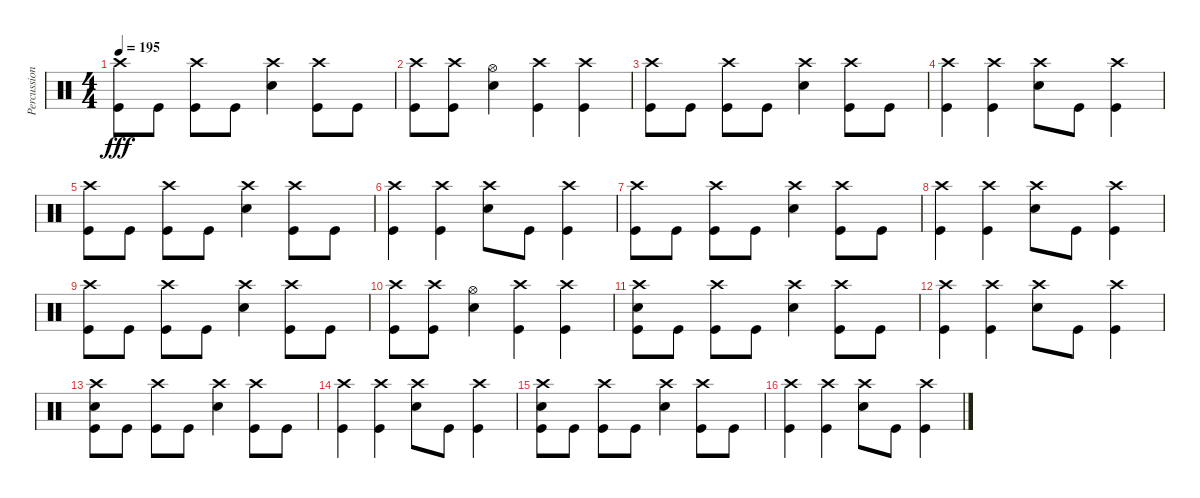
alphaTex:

\track ("Percussions" "Percussion") {instrument percussion}
\staff {score}
\articulation defaults
\ts (4 4)
\tempo 195
\clef neutral
\ks c
("Crash high (hit)" "Kick (hit)").8{dy fff} "Kick (hit)".8 ("Crash high (hit)" "Kick (hit)").8 "Kick (hit)".8 ("Crash high (hit)" "Electric Snare (hit)").4 ("Crash high (hit)" "Kick (hit)").8 "Kick (hit)".8 |
("Crash high (hit)" "Kick (hit)").8 ("Crash high (hit)" "Kick (hit)").8 ("Hi-Hat (open)" "Electric Snare (hit)").4 ("Crash high (hit)" "Kick (hit)").4 ("Crash high (hit)" "Kick (hit)").4 |
("Crash high (hit)" "Kick (hit)").8 "Kick (hit)".8 ("Crash high (hit)" "Kick (hit)").8 "Kick (hit)".8 ("Crash high (hit)" "Electric Snare (hit)").4 ("Crash high (hit)" "Kick (hit)").8 "Kick (hit)".8 |
("Crash high (hit)" "Kick (hit)").4 ("Crash high (hit)" "Kick (hit)").4 ("Crash high (hit)" "Electric Snare (hit)").8 "Kick (hit)".8 ("Crash high (hit)" "Kick (hit)").4 |
("Crash high (hit)" "Kick (hit)").8 "Kick (hit)".8 ("Crash high (hit)" "Kick (hit)").8 "Kick (hit)".8 ("Crash high (hit)" "Electric Snare (hit)").4 ("Crash high (hit)" "Kick (hit)").8 "Kick (hit)".8 |
("Crash high (hit)" "Kick (hit)").4 ("Crash high (hit)" "Kick (hit)").4 ("Crash high (hit)" "Electric Snare (hit)").8 "Kick (hit)".8 ("Crash high (hit)" "Kick (hit)").4 |
("Crash high (hit)" "Kick (hit)").8 "Kick (hit)".8 ("Crash high (hit)" "Kick (hit)").8 "Kick (hit)".8 ("Crash high (hit)" "Electric Snare (hit)").4 ("Crash high (hit)" "Kick (hit)").8 "Kick (hit)".8 |
("Crash high (hit)" "Kick (hit)").4 ("Crash high (hit)" "Kick (hit)").4 ("Crash high (hit)" "Electric Snare (hit)").8 "Kick (hit)".8 ("Crash high (hit)" "Kick (hit)").4 |
("Crash high (hit)" "Kick (hit)").8 "Kick (hit)".8 ("Crash high (hit)" "Kick (hit)").8 "Kick (hit)".8 ("Crash high (hit)" "Electric Snare (hit)").4 ("Crash high (hit)" "Kick (hit)").8 "Kick (hit)".8 |
("Crash high (hit)" "Kick (hit)").8 ("Crash high (hit)" "Kick (hit)").8 ("Hi-Hat (open)" "Electric Snare (hit)").4 ("Crash high (hit)" "Kick (hit)").4 ("Crash high (hit)" "Kick (hit)").4 |
("Crash high (hit)" "Electric Snare (hit)" "Kick (hit)").8 "Kick (hit)".8 ("Crash high (hit)" "Kick (hit)").8 "Kick (hit)".8 ("Crash high (hit)" "Electric Snare (hit)").4 ("Crash high (hit)" "Kick (hit)").8 "Kick (hit)".8 |
("Crash high (hit)" "Kick (hit)").4 ("Crash high (hit)" "Kick (hit)").4 ("Crash high (hit)" "Electric Snare (hit)").8 "Kick (hit)".8 ("Crash high (hit)" "Kick (hit)").4 |
("Crash high (hit)" "Electric Snare (hit)" "Kick (hit)").8 "Kick (hit)".8 ("Crash high (hit)" "Kick (hit)").8 "Kick (hit)".8 ("Crash high (hit)" "Electric Snare (hit)").4 ("Crash high (hit)" "Kick (hit)").8 "Kick (hit)".8 |
("Crash high (hit)" "Kick (hit)").4 ("Crash high (hit)" "Kick (hit)").4 ("Crash high (hit)" "Electric Snare (hit)").8 "Kick (hit)".8 ("Crash high (hit)" "Kick (hit)").4 |
("Crash high (hit)" "Electric Snare (hit)" "Kick (hit)").8 "Kick (hit)".8 ("Crash high (hit)" "Kick (hit)").8 "Kick (hit)".8 ("Crash high (hit)" "Electric Snare (hit)").4 ("Crash high (hit)" "Kick (hit)").8 "Kick (hit)".8 |
("Crash high (hit)" "Kick (hit)").4 ("Crash high (hit)" "Kick (hit)").4 ("Crash high (hit)" "Electric Snare (hit)").8 "Kick (hit)".8 ("Crash high (hit)" "Kick (hit)").4
